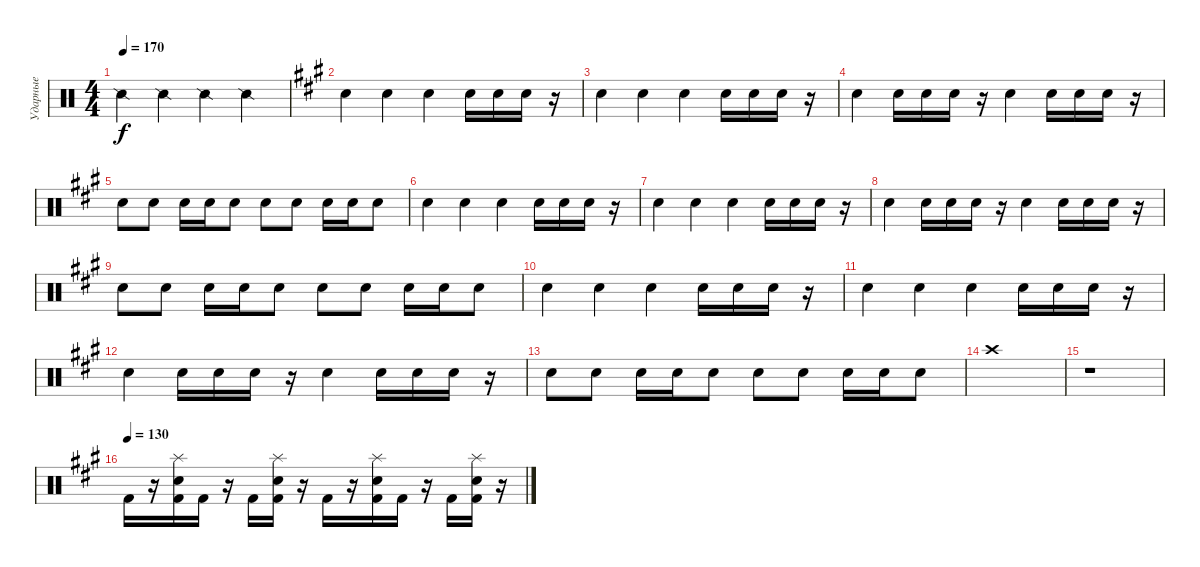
\track ("Ударные" "Ударные") {instrument percussion}
\staff {score}
\articulation defaults
\ts (4 4)
\tempo 170
\clef neutral
\ks c "Snare (side stick) 2".4{dy f} "Snare (side stick) 2".4 "Snare (side stick) 2".4 "Snare (side stick) 2".4
|
\ks f#minor "Snare (hit) 2".4 "Snare (hit) 2".4 "Snare (hit) 2".4 "Snare (hit) 2".16 "Snare (hit) 2".16 "Snare (hit) 2".16
r.16 |
"Snare (hit) 2".4 "Snare (hit) 2".4 "Snare (hit) 2".4 "Snare (hit) 2".16 "Snare (hit) 2".16 "Snare (hit) 2".16 r.16 |
"Snare (hit) 2".4 "Snare (hit) 2".16 "Snare (hit) 2".16 "Snare (hit) 2".16 r.16 "Snare (hit) 2".4 "Snare (hit) 2".16 "Snare (hit) 2".16 "Snare (hit) 2".16 r.16 |
"Snare (hit) 2".8 "Snare (hit) 2".8 "Snare (hit) 2".16 "Snare (hit) 2".16 "Snare (hit) 2".8 "Snare (hit) 2".8 "Snare (hit) 2".8 "Snare (hit) 2".16 "Snare (hit) 2".16 "Snare (hit) 2".8 |
"Snare (hit) 2".4 "Snare (hit) 2".4 "Snare (hit) 2".4 "Snare (hit) 2".16 "Snare (hit) 2".16 "Snare (hit) 2".16 r.16 |
"Snare (hit) 2".4 "Snare (hit) 2".4 "Snare (hit) 2".4 "Snare (hit) 2".16 "Snare (hit) 2".16 "Snare (hit) 2".16 r.16 |
"Snare (hit) 2".4 "Snare (hit) 2".16 "Snare (hit) 2".16 "Snare (hit) 2".16 r.16 "Snare (hit) 2".4 "Snare (hit) 2".16 "Snare (hit) 2".16 "Snare (hit) 2".16 r.16 |
"Snare (hit) 2".8 "Snare (hit) 2".8 "Snare (hit) 2".16 "Snare (hit) 2".16 "Snare (hit) 2".8 "Snare (hit) 2".8 "Snare (hit) 2".8 "Snare (hit) 2".16 "Snare (hit) 2".16 "Snare (hit) 2".8 |
"Snare (hit) 2".4 "Snare (hit) 2".4 "Snare (hit) 2".4 "Snare (hit) 2".16 "Snare (hit) 2".16 "Snare (hit) 2".16 r.16 |
"Snare (hit) 2".4 "Snare (hit) 2".4 "Snare (hit) 2".4 "Snare (hit) 2".16 "Snare (hit) 2".16 "Snare (hit) 2".16 r.16 |
"Snare (hit) 2".4 "Snare (hit) 2".16 "Snare (hit) 2".16 "Snare (hit) 2".16 r.16 "Snare (hit) 2".4 "Snare (hit) 2".16 "Snare (hit) 2".16 "Snare (hit) 2".16 r.16 |
"Snare (hit) 2".8 "Snare (hit) 2".8 "Snare (hit) 2".16 "Snare (hit) 2".16 "Snare (hit) 2".8 "Snare (hit) 2".8 "Snare (hit) 2".8 "Snare (hit) 2".16 "Snare (hit) 2".16 "Snare (hit) 2".8 |
"Crash high (hit)".1 |
r.1 |
\tempo (130)
"Kick (hit) 2".16 r.16 ("Splash (hit)" "Snare (hit) 2" "Kick (hit) 2").16 "Kick (hit) 2".16 r.16 "Kick (hit) 2".16 ("Splash (hit)" "Snare (hit) 2" "Kick (hit) 2").16 r.16 "Kick (hit) 2".16 r.16 ("Splash (hit)" "Snare (hit) 2" "Kick (hit) 2").16 "Kick (hit) 2".16 r.16 "Kick (hit) 2".16 ("Splash (hit)" "Snare (hit) 2" "Kick (hit) 2").16 r.16
